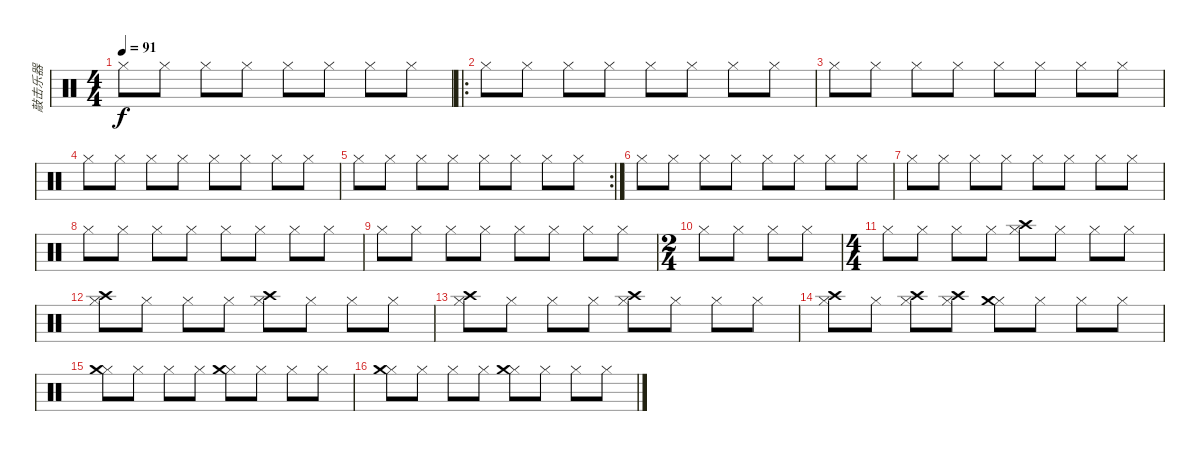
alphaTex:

\track ("敲击乐器" "敲击乐器") {instrument percussion}
\staff {score}
\articulation defaults
\ts (4 4)
\tempo 91
\clef neutral
\ks c "Hi-Hat (closed)".8{dy f} "Hi-Hat (closed)".8 "Hi-Hat (closed)".8 "Hi-Hat (closed)".8 "Hi-Hat (closed)".8 "Hi-Hat (closed)".8 "Hi-Hat (closed)".8 "Hi-Hat (closed)".8
|
\ro "Hi-Hat (closed)".8 "Hi-Hat (closed)".8 "Hi-Hat (closed)".8 "Hi-Hat (closed)".8 "Hi-Hat (closed)".8 "Hi-Hat (closed)".8 "Hi-Hat (closed)".8 "Hi-Hat (closed)".8
|
"Hi-Hat (closed)".8 "Hi-Hat (closed)".8 "Hi-Hat (closed)".8 "Hi-Hat (closed)".8 "Hi-Hat (closed)".8 "Hi-Hat (closed)".8 "Hi-Hat (closed)".8 "Hi-Hat (closed)".8 |
"Hi-Hat (closed)".8 "Hi-Hat (closed)".8 "Hi-Hat (closed)".8 "Hi-Hat (closed)".8 "Hi-Hat (closed)".8 "Hi-Hat (closed)".8 "Hi-Hat (closed)".8 "Hi-Hat (closed)".8 |
\rc 2 "Hi-Hat (closed)".8 "Hi-Hat (closed)".8 "Hi-Hat (closed)".8 "Hi-Hat (closed)".8 "Hi-Hat (closed)".8 "Hi-Hat (closed)".8 "Hi-Hat (closed)".8 "Hi-Hat (closed)".8
|
"Hi-Hat (closed)".8 "Hi-Hat (closed)".8 "Hi-Hat (closed)".8 "Hi-Hat (closed)".8 "Hi-Hat (closed)".8 "Hi-Hat (closed)".8 "Hi-Hat (closed)".8 "Hi-Hat (closed)".8 |
"Hi-Hat (closed)".8 "Hi-Hat (closed)".8 "Hi-Hat (closed)".8 "Hi-Hat (closed)".8 "Hi-Hat (closed)".8 "Hi-Hat (closed)".8 "Hi-Hat (closed)".8 "Hi-Hat (closed)".8 |
"Hi-Hat (closed)".8 "Hi-Hat (closed)".8 "Hi-Hat (closed)".8 "Hi-Hat (closed)".8 "Hi-Hat (closed)".8 "Hi-Hat (closed)".8 "Hi-Hat (closed)".8 "Hi-Hat (closed)".8 |
"Hi-Hat (closed)".8 "Hi-Hat (closed)".8 "Hi-Hat (closed)".8 "Hi-Hat (closed)".8 "Hi-Hat (closed)".8 "Hi-Hat (closed)".8 "Hi-Hat (closed)".8 "Hi-Hat (closed)".8 |
\ts (2 4)
"Hi-Hat (closed)".8 "Hi-Hat (closed)".8 "Hi-Hat (closed)".8 "Hi-Hat (closed)".8 |
\ts (4 4)
"Hi-Hat (closed)".8 "Hi-Hat (closed)".8 "Hi-Hat (closed)".8 "Hi-Hat (closed)".8 ("Hi-Hat (closed)" "Crash high (hit)").8 "Hi-Hat (closed)".8 "Hi-Hat (closed)".8 "Hi-Hat (closed)".8 |
("Hi-Hat (closed)" "Crash high (hit)").8 "Hi-Hat (closed)".8 "Hi-Hat (closed)".8 "Hi-Hat (closed)".8 ("Hi-Hat (closed)" "Crash high (hit)").8 "Hi-Hat (closed)".8 "Hi-Hat (closed)".8 "Hi-Hat (closed)".8 |
("Hi-Hat (closed)" "Crash high (hit)").8 "Hi-Hat (closed)".8 "Hi-Hat (closed)".8 "Hi-Hat (closed)".8 ("Hi-Hat (closed)" "Crash high (hit)").8 "Hi-Hat (closed)".8 "Hi-Hat (closed)".8 "Hi-Hat (closed)".8 |
("Hi-Hat (closed)" "Crash high (hit)").8 "Hi-Hat (closed)".8 ("Hi-Hat (closed)" "Crash high (hit)").8 ("Hi-Hat (closed)" "Crash high (hit)").8 ("Hi-Hat (closed)" "Crash medium (hit)").8 "Hi-Hat (closed)".8 "Hi-Hat (closed)".8 "Hi-Hat (closed)".8 |
("Hi-Hat (closed)" "Crash medium (hit)").8 "Hi-Hat (closed)".8 "Hi-Hat (closed)".8 "Hi-Hat (closed)".8 ("Hi-Hat (closed)" "Crash medium (hit)").8 "Hi-Hat (closed)".8 "Hi-Hat (closed)".8 "Hi-Hat (closed)".8 |
("Hi-Hat (closed)" "Crash medium (hit)").8 "Hi-Hat (closed)".8 "Hi-Hat (closed)".8 "Hi-Hat (closed)".8 ("Hi-Hat (closed)" "Crash medium (hit)").8 "Hi-Hat (closed)".8 "Hi-Hat (closed)".8 "Hi-Hat (closed)".8
